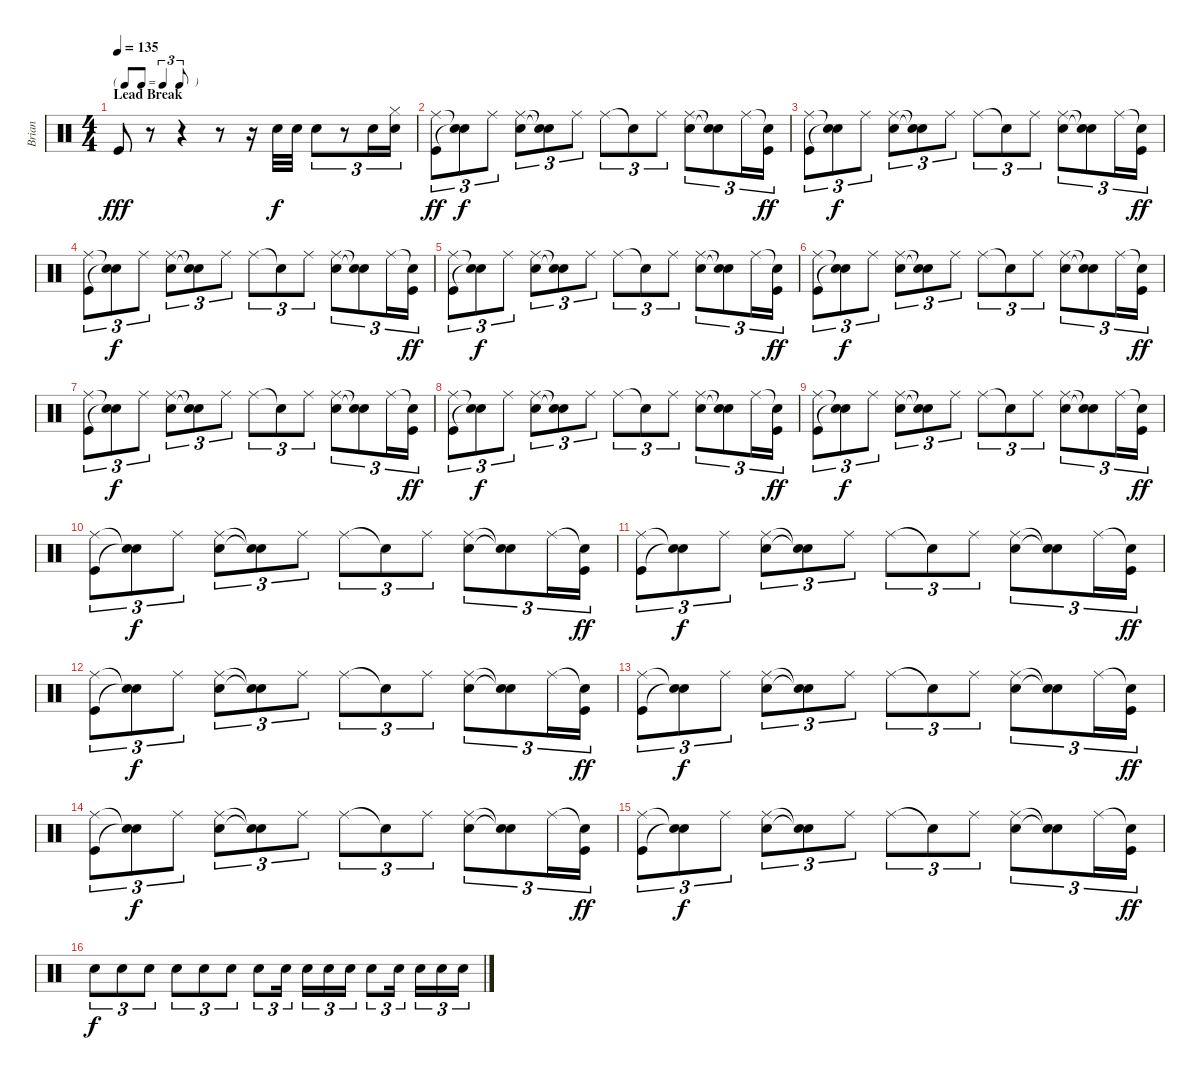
\track ("Brian" "Brian") {instrument percussion}
\staff {score}
\articulation defaults
\ts (4 4)
\tf triplet8th
\section ("" "Lead Break")
\tempo 135
\clef neutral
\ks c "Kick (hit)".8{dy fff}
r.8 r.4 r.8 r.16 "Snare (hit) 2".32{dy f} "Snare (hit) 2".32 "Snare (hit) 2".8{tu (3 2)} r.8{tu (3 2)} "Snare (hit) 2".16{tu (3 2)} ("Hi-Hat (closed)" "Snare (hit)"{t}).16{tu (3 2)} |
("Ride (middle)" "Kick (hit)").8{tu (3 2) dy ff} ("Snare (hit)"{t} "Snare (hit)"{t}).8{tu (3 2) dy f} "Ride (middle)".8{tu (3 2)} ("Ride (middle)" "Snare (hit) 2").8{tu (3 2)} ("Snare (hit)"{t} "Snare (hit)"{t}).8{tu (3 2)} "Ride (middle)".8{tu (3 2)} "Ride (middle)".8{tu (3 2)} "Snare (hit)"{t}.8{tu (3 2)} "Ride (middle)".8{tu (3 2)} ("Ride (middle)" "Snare (hit) 2").8{tu (3 2)} ("Snare (hit)"{t} "Snare (hit)"{t}).8{tu (3 2)} "Ride (middle)".16{tu (3 2)} ("Snare (hit)"{t} "Kick (hit)").16{tu (3 2) dy ff} |
("Ride (middle)" "Kick (hit)").8{tu (3 2)} ("Snare (hit)"{t} "Snare (hit)"{t}).8{tu (3 2) dy f} "Ride (middle)".8{tu (3 2)} ("Ride (middle)" "Snare (hit) 2").8{tu (3 2)} ("Snare (hit)"{t} "Snare (hit)"{t}).8{tu (3 2)} "Ride (middle)".8{tu (3 2)} "Ride (middle)".8{tu (3 2)} "Snare (hit)"{t}.8{tu (3 2)} "Ride (middle)".8{tu (3 2)} ("Ride (middle)" "Snare (hit) 2").8{tu (3 2)} ("Snare (hit)"{t} "Snare (hit)"{t}).8{tu (3 2)} "Ride (middle)".16{tu (3 2)} ("Snare (hit)"{t} "Kick (hit)").16{tu (3 2) dy ff} |
("Ride (middle)" "Kick (hit)").8{tu (3 2)} ("Snare (hit)"{t} "Snare (hit)"{t}).8{tu (3 2) dy f} "Ride (middle)".8{tu (3 2)} ("Ride (middle)" "Snare (hit) 2").8{tu (3 2)} ("Snare (hit)"{t} "Snare (hit)"{t}).8{tu (3 2)} "Ride (middle)".8{tu (3 2)} "Ride (middle)".8{tu (3 2)} "Snare (hit)"{t}.8{tu (3 2)} "Ride (middle)".8{tu (3 2)} ("Ride (middle)" "Snare (hit) 2").8{tu (3 2)} ("Snare (hit)"{t} "Snare (hit)"{t}).8{tu (3 2)} "Ride (middle)".16{tu (3 2)} ("Snare (hit)"{t} "Kick (hit)").16{tu (3 2) dy ff} |
("Ride (middle)" "Kick (hit)").8{tu (3 2)} ("Snare (hit)"{t} "Snare (hit)"{t}).8{tu (3 2) dy f} "Ride (middle)".8{tu (3 2)} ("Ride (middle)" "Snare (hit) 2").8{tu (3 2)} ("Snare (hit)"{t} "Snare (hit)"{t}).8{tu (3 2)} "Ride (middle)".8{tu (3 2)} "Ride (middle)".8{tu (3 2)} "Snare (hit)"{t}.8{tu (3 2)} "Ride (middle)".8{tu (3 2)} ("Ride (middle)" "Snare (hit) 2").8{tu (3 2)} ("Snare (hit)"{t} "Snare (hit)"{t}).8{tu (3 2)} "Ride (middle)".16{tu (3 2)} ("Snare (hit)"{t} "Kick (hit)").16{tu (3 2) dy ff} |
("Ride (middle)" "Kick (hit)").8{tu (3 2)} ("Snare (hit)"{t} "Snare (hit)"{t}).8{tu (3 2) dy f} "Ride (middle)".8{tu (3 2)} ("Ride (middle)" "Snare (hit) 2").8{tu (3 2)} ("Snare (hit)"{t} "Snare (hit)"{t}).8{tu (3 2)} "Ride (middle)".8{tu (3 2)} "Ride (middle)".8{tu (3 2)} "Snare (hit)"{t}.8{tu (3 2)} "Ride (middle)".8{tu (3 2)} ("Ride (middle)" "Snare (hit) 2").8{tu (3 2)} ("Snare (hit)"{t} "Snare (hit)"{t}).8{tu (3 2)} "Ride (middle)".16{tu (3 2)} ("Snare (hit)"{t} "Kick (hit)").16{tu (3 2) dy ff} |
("Ride (middle)" "Kick (hit)").8{tu (3 2)} ("Snare (hit)"{t} "Snare (hit)"{t}).8{tu (3 2) dy f} "Ride (middle)".8{tu (3 2)} ("Ride (middle)" "Snare (hit) 2").8{tu (3 2)} ("Snare (hit)"{t} "Snare (hit)"{t}).8{tu (3 2)} "Ride (middle)".8{tu (3 2)} "Ride (middle)".8{tu (3 2)} "Snare (hit)"{t}.8{tu (3 2)} "Ride (middle)".8{tu (3 2)} ("Ride (middle)" "Snare (hit) 2").8{tu (3 2)} ("Snare (hit)"{t} "Snare (hit)"{t}).8{tu (3 2)} "Ride (middle)".16{tu (3 2)} ("Snare (hit)"{t} "Kick (hit)").16{tu (3 2) dy ff} |
("Ride (middle)" "Kick (hit)").8{tu (3 2)} ("Snare (hit)"{t} "Snare (hit)"{t}).8{tu (3 2) dy f} "Ride (middle)".8{tu (3 2)} ("Ride (middle)" "Snare (hit) 2").8{tu (3 2)} ("Snare (hit)"{t} "Snare (hit)"{t}).8{tu (3 2)} "Ride (middle)".8{tu (3 2)} "Ride (middle)".8{tu (3 2)} "Snare (hit)"{t}.8{tu (3 2)} "Ride (middle)".8{tu (3 2)} ("Ride (middle)" "Snare (hit) 2").8{tu (3 2)} ("Snare (hit)"{t} "Snare (hit)"{t}).8{tu (3 2)} "Ride (middle)".16{tu (3 2)} ("Snare (hit)"{t} "Kick (hit)").16{tu (3 2) dy ff} |
("Ride (middle)" "Kick (hit)").8{tu (3 2)} ("Snare (hit)"{t} "Snare (hit)"{t}).8{tu (3 2) dy f} "Ride (middle)".8{tu (3 2)} ("Ride (middle)" "Snare (hit) 2").8{tu (3 2)} ("Snare (hit)"{t} "Snare (hit)"{t}).8{tu (3 2)} "Ride (middle)".8{tu (3 2)} "Ride (middle)".8{tu (3 2)} "Snare (hit)"{t}.8{tu (3 2)} "Ride (middle)".8{tu (3 2)} ("Ride (middle)" "Snare (hit) 2").8{tu (3 2)} ("Snare (hit)"{t} "Snare (hit)"{t}).8{tu (3 2)} "Ride (middle)".16{tu (3 2)} ("Snare (hit)"{t} "Kick (hit)").16{tu (3 2) dy ff} |
("Ride (middle)" "Kick (hit)").8{tu (3 2)} ("Snare (hit)"{t} "Snare (hit)"{t}).8{tu (3 2) dy f} "Ride (middle)".8{tu (3 2)} ("Ride (middle)" "Snare (hit) 2").8{tu (3 2)} ("Snare (hit)"{t} "Snare (hit)"{t}).8{tu (3 2)} "Ride (middle)".8{tu (3 2)} "Ride (middle)".8{tu (3 2)} "Snare (hit)"{t}.8{tu (3 2)} "Ride (middle)".8{tu (3 2)} ("Ride (middle)" "Snare (hit) 2").8{tu (3 2)} ("Snare (hit)"{t} "Snare (hit)"{t}).8{tu (3 2)} "Ride (middle)".16{tu (3 2)} ("Snare (hit)"{t} "Kick (hit)").16{tu (3 2) dy ff} |
("Ride (middle)" "Kick (hit)").8{tu (3 2)} ("Snare (hit)"{t} "Snare (hit)"{t}).8{tu (3 2) dy f} "Ride (middle)".8{tu (3 2)} ("Ride (middle)" "Snare (hit) 2").8{tu (3 2)} ("Snare (hit)"{t} "Snare (hit)"{t}).8{tu (3 2)} "Ride (middle)".8{tu (3 2)} "Ride (middle)".8{tu (3 2)} "Snare (hit)"{t}.8{tu (3 2)} "Ride (middle)".8{tu (3 2)} ("Ride (middle)" "Snare (hit) 2").8{tu (3 2)} ("Snare (hit)"{t} "Snare (hit)"{t}).8{tu (3 2)} "Ride (middle)".16{tu (3 2)} ("Snare (hit)"{t} "Kick (hit)").16{tu (3 2) dy ff} |
("Ride (middle)" "Kick (hit)").8{tu (3 2)} ("Snare (hit)"{t} "Snare (hit)"{t}).8{tu (3 2) dy f} "Ride (middle)".8{tu (3 2)} ("Ride (middle)" "Snare (hit) 2").8{tu (3 2)} ("Snare (hit)"{t} "Snare (hit)"{t}).8{tu (3 2)} "Ride (middle)".8{tu (3 2)} "Ride (middle)".8{tu (3 2)} "Snare (hit)"{t}.8{tu (3 2)} "Ride (middle)".8{tu (3 2)} ("Ride (middle)" "Snare (hit) 2").8{tu (3 2)} ("Snare (hit)"{t} "Snare (hit)"{t}).8{tu (3 2)} "Ride (middle)".16{tu (3 2)} ("Snare (hit)"{t} "Kick (hit)").16{tu (3 2) dy ff} |
("Ride (middle)" "Kick (hit)").8{tu (3 2)} ("Snare (hit)"{t} "Snare (hit)"{t}).8{tu (3 2) dy f} "Ride (middle)".8{tu (3 2)} ("Ride (middle)" "Snare (hit) 2").8{tu (3 2)} ("Snare (hit)"{t} "Snare (hit)"{t}).8{tu (3 2)} "Ride (middle)".8{tu (3 2)} "Ride (middle)".8{tu (3 2)} "Snare (hit)"{t}.8{tu (3 2)} "Ride (middle)".8{tu (3 2)} ("Ride (middle)" "Snare (hit) 2").8{tu (3 2)} ("Snare (hit)"{t} "Snare (hit)"{t}).8{tu (3 2)} "Ride (middle)".16{tu (3 2)} ("Snare (hit)"{t} "Kick (hit)").16{tu (3 2) dy ff} |
("Ride (middle)" "Kick (hit)").8{tu (3 2)} ("Snare (hit)"{t} "Snare (hit)"{t}).8{tu (3 2) dy f} "Ride (middle)".8{tu (3 2)} ("Ride (middle)" "Snare (hit) 2").8{tu (3 2)} ("Snare (hit)"{t} "Snare (hit)"{t}).8{tu (3 2)} "Ride (middle)".8{tu (3 2)} "Ride (middle)".8{tu (3 2)} "Snare (hit)"{t}.8{tu (3 2)} "Ride (middle)".8{tu (3 2)} ("Ride (middle)" "Snare (hit) 2").8{tu (3 2)} ("Snare (hit)"{t} "Snare (hit)"{t}).8{tu (3 2)} "Ride (middle)".16{tu (3 2)} ("Snare (hit)"{t} "Kick (hit)").16{tu (3 2) dy ff} |
("Ride (middle)" "Kick (hit)").8{tu (3 2)} ("Snare (hit)"{t} "Snare (hit)"{t}).8{tu (3 2) dy f} "Ride (middle)".8{tu (3 2)} ("Ride (middle)" "Snare (hit) 2").8{tu (3 2)} ("Snare (hit)"{t} "Snare (hit)"{t}).8{tu (3 2)} "Ride (middle)".8{tu (3 2)} "Ride (middle)".8{tu (3 2)} "Snare (hit)"{t}.8{tu (3 2)} "Ride (middle)".8{tu (3 2)} ("Ride (middle)" "Snare (hit) 2").8{tu (3 2)} ("Snare (hit)"{t} "Snare (hit)"{t}).8{tu (3 2)} "Ride (middle)".16{tu (3 2)} ("Snare (hit)"{t} "Kick (hit)").16{tu (3 2) dy ff} |
"Snare (hit) 2".8{tu (3 2) dy f} "Snare (hit) 2".8{tu (3 2)} "Snare (hit) 2".8{tu (3 2)} "Snare (hit) 2".8{tu (3 2)} "Snare (hit) 2".8{tu (3 2)} "Snare (hit) 2".8{tu (3 2)} "Snare (hit) 2".8{tu (3 2)} "Snare (hit) 2".16{tu (3 2)} "Snare (hit) 2".16{tu (3 2)} "Snare (hit) 2".16{tu (3 2)} "Snare (hit) 2".16{tu (3 2)} "Snare (hit) 2".8{tu (3 2)} "Snare (hit) 2".16{tu (3 2)} "Snare (hit) 2".16{tu (3 2)} "Snare (hit) 2".16{tu (3 2)} "Snare (hit) 2".16{tu (3 2)}
